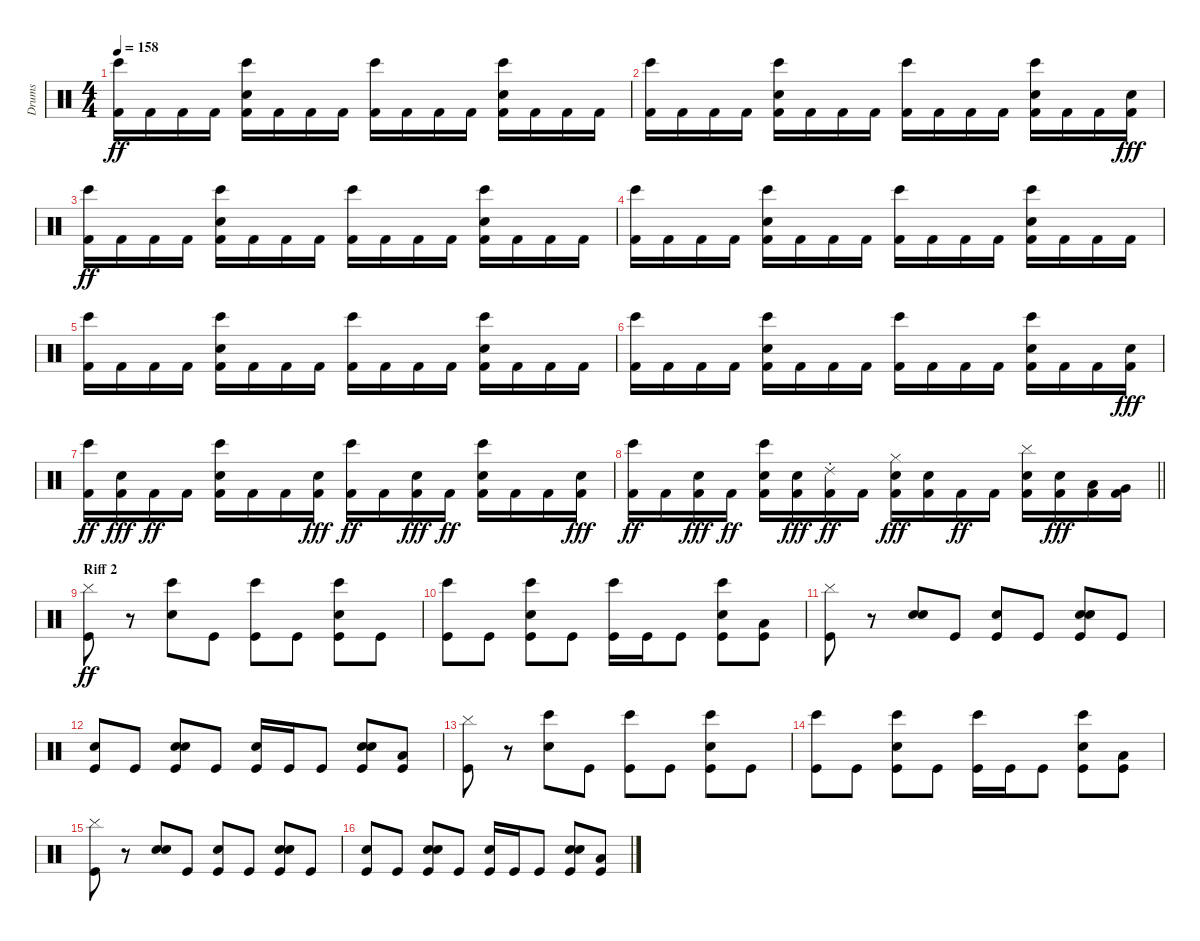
\track ("Drums" "Drums") {instrument percussion}
\staff {score}
\articulation defaults
\ts (4 4)
\tempo 158
\clef neutral
\ks c
("Bongo High (hit)" "Kick (hit) 2").16{dy ff} "Kick (hit) 2".16 "Kick (hit) 2".16 "Kick (hit) 2".16 ("Bongo High (hit)" "Kick (hit) 2" "Snare (hit) 2").16 "Kick (hit) 2".16 "Kick (hit) 2".16 "Kick (hit) 2".16 ("Bongo High (hit)" "Kick (hit) 2").16 "Kick (hit) 2".16 "Kick (hit) 2".16 "Kick (hit) 2".16 ("Bongo High (hit)" "Kick (hit) 2" "Snare (hit) 2").16 "Kick (hit) 2".16 "Kick (hit) 2".16 "Kick (hit) 2".16 |
("Bongo High (hit)" "Kick (hit) 2").16 "Kick (hit) 2".16 "Kick (hit) 2".16 "Kick (hit) 2".16 ("Bongo High (hit)" "Kick (hit) 2" "Snare (hit) 2").16 "Kick (hit) 2".16 "Kick (hit) 2".16 "Kick (hit) 2".16 ("Bongo High (hit)" "Kick (hit) 2").16 "Kick (hit) 2".16 "Kick (hit) 2".16 "Kick (hit) 2".16 ("Bongo High (hit)" "Kick (hit) 2" "Snare (hit) 2").16 "Kick (hit) 2".16 "Kick (hit) 2".16 ("Kick (hit) 2" "Snare (hit) 2").16{dy fff} |
("Bongo High (hit)" "Kick (hit) 2").16{dy ff} "Kick (hit) 2".16 "Kick (hit) 2".16 "Kick (hit) 2".16 ("Bongo High (hit)" "Kick (hit) 2" "Snare (hit) 2").16 "Kick (hit) 2".16 "Kick (hit) 2".16 "Kick (hit) 2".16 ("Bongo High (hit)" "Kick (hit) 2").16 "Kick (hit) 2".16 "Kick (hit) 2".16 "Kick (hit) 2".16 ("Bongo High (hit)" "Kick (hit) 2" "Snare (hit) 2").16 "Kick (hit) 2".16 "Kick (hit) 2".16 "Kick (hit) 2".16 |
("Bongo High (hit)" "Kick (hit) 2").16 "Kick (hit) 2".16 "Kick (hit) 2".16 "Kick (hit) 2".16 ("Bongo High (hit)" "Kick (hit) 2" "Snare (hit) 2").16 "Kick (hit) 2".16 "Kick (hit) 2".16 "Kick (hit) 2".16 ("Bongo High (hit)" "Kick (hit) 2").16 "Kick (hit) 2".16 "Kick (hit) 2".16 "Kick (hit) 2".16 ("Bongo High (hit)" "Kick (hit) 2" "Snare (hit) 2").16 "Kick (hit) 2".16 "Kick (hit) 2".16 "Kick (hit) 2".16 |
("Bongo High (hit)" "Kick (hit) 2").16 "Kick (hit) 2".16 "Kick (hit) 2".16 "Kick (hit) 2".16 ("Bongo High (hit)" "Kick (hit) 2" "Snare (hit) 2").16 "Kick (hit) 2".16 "Kick (hit) 2".16 "Kick (hit) 2".16 ("Bongo High (hit)" "Kick (hit) 2").16 "Kick (hit) 2".16 "Kick (hit) 2".16 "Kick (hit) 2".16 ("Bongo High (hit)" "Kick (hit) 2" "Snare (hit) 2").16 "Kick (hit) 2".16 "Kick (hit) 2".16 "Kick (hit) 2".16 |
("Bongo High (hit)" "Kick (hit) 2").16 "Kick (hit) 2".16 "Kick (hit) 2".16 "Kick (hit) 2".16 ("Bongo High (hit)" "Kick (hit) 2" "Snare (hit) 2").16 "Kick (hit) 2".16 "Kick (hit) 2".16 "Kick (hit) 2".16 ("Bongo High (hit)" "Kick (hit) 2").16 "Kick (hit) 2".16 "Kick (hit) 2".16 "Kick (hit) 2".16 ("Bongo High (hit)" "Kick (hit) 2" "Snare (hit) 2").16 "Kick (hit) 2".16 "Kick (hit) 2".16 ("Kick (hit) 2" "Snare (hit) 2").16{dy fff} |
("Bongo High (hit)" "Kick (hit) 2").16{dy ff} ("Kick (hit) 2" "Snare (hit) 2").16{dy fff} "Kick (hit) 2".16{dy ff} "Kick (hit) 2".16 ("Bongo High (hit)" "Kick (hit) 2" "Snare (hit) 2").16 "Kick (hit) 2".16 "Kick (hit) 2".16 ("Kick (hit) 2" "Snare (hit) 2").16{dy fff} ("Bongo High (hit)" "Kick (hit) 2").16{dy ff} "Kick (hit) 2".16 ("Kick (hit) 2" "Snare (hit) 2").16{dy fff} "Kick (hit) 2".16{dy ff} ("Bongo High (hit)" "Kick (hit) 2" "Snare (hit) 2").16 "Kick (hit) 2".16 "Kick (hit) 2".16 ("Kick (hit) 2" "Snare (hit) 2").16{dy fff} |
\barLineRight lightlight
("Bongo High (hit)" "Kick (hit) 2").16{dy ff} "Kick (hit) 2".16 ("Kick (hit) 2" "Snare (hit) 2").16{dy fff} "Kick (hit) 2".16{dy ff} ("Bongo High (hit)" "Kick (hit) 2" "Snare (hit) 2").16 ("Kick (hit) 2" "Snare (hit) 2").16{dy fff} ("Ride (choke) 2" "Kick (hit) 2").16{dy ff} "Kick (hit) 2".16 ("Hi-Hat (closed)" "Kick (hit) 2" "Snare (hit) 2").16{dy fff} ("Kick (hit) 2" "Snare (hit) 2").16 "Kick (hit) 2".16{dy ff} "Kick (hit) 2".16 ("Cymbal (hit)" "Kick (hit) 2" "Snare (hit) 2").16 ("Kick (hit) 2" "Snare (hit) 2").16{dy fff} ("Kick (hit) 2" "Low Tom (hit)").16 ("Kick (hit) 2" "Very Low Tom (hit)").16 |
\section ("" "Riff 2")
("Cymbal (hit)" "Kick (hit)").8{dy ff} r.8 ("Bongo High (hit)" "Snare (hit) 2").8 "Kick (hit)".8 ("Bongo High (hit)" "Kick (hit)").8 "Kick (hit)".8 ("Bongo High (hit)" "Kick (hit)" "Snare (hit) 2").8 "Kick (hit)".8 |
("Bongo High (hit)" "Kick (hit)").8 "Kick (hit)".8 ("Bongo High (hit)" "Kick (hit)" "Snare (hit) 2").8 "Kick (hit)".8 ("Bongo High (hit)" "Kick (hit)").16 "Kick (hit)".16 "Kick (hit)".8 ("Bongo High (hit)" "Kick (hit)" "Snare (hit) 2").8 ("Kick (hit)" "Low Tom (hit)").8 |
("Cymbal (hit)" "Kick (hit)").8 r.8 ("Snare (hit)" "Snare (hit) 2").8 "Kick (hit)".8 ("Snare (hit)" "Kick (hit)").8 "Kick (hit)".8 ("Snare (hit)" "Kick (hit)" "Snare (hit) 2").8 "Kick (hit)".8 |
("Snare (hit)" "Kick (hit)").8 "Kick (hit)".8 ("Snare (hit)" "Kick (hit)" "Snare (hit) 2").8 "Kick (hit)".8 ("Snare (hit)" "Kick (hit)").16 "Kick (hit)".16 "Kick (hit)".8 ("Snare (hit)" "Kick (hit)" "Snare (hit) 2").8 ("Kick (hit)" "Low Tom (hit)").8 |
("Cymbal (hit)" "Kick (hit)").8 r.8 ("Bongo High (hit)" "Snare (hit) 2").8 "Kick (hit)".8 ("Bongo High (hit)" "Kick (hit)").8 "Kick (hit)".8 ("Bongo High (hit)" "Kick (hit)" "Snare (hit) 2").8 "Kick (hit)".8 |
("Bongo High (hit)" "Kick (hit)").8 "Kick (hit)".8 ("Bongo High (hit)" "Kick (hit)" "Snare (hit) 2").8 "Kick (hit)".8 ("Bongo High (hit)" "Kick (hit)").16 "Kick (hit)".16 "Kick (hit)".8 ("Bongo High (hit)" "Kick (hit)" "Snare (hit) 2").8 ("Kick (hit)" "Low Tom (hit)").8 |
("Cymbal (hit)" "Kick (hit)").8 r.8 ("Snare (hit)" "Snare (hit) 2").8 "Kick (hit)".8 ("Snare (hit)" "Kick (hit)").8 "Kick (hit)".8 ("Snare (hit)" "Kick (hit)" "Snare (hit) 2").8 "Kick (hit)".8 |
("Snare (hit)" "Kick (hit)").8 "Kick (hit)".8 ("Snare (hit)" "Kick (hit)" "Snare (hit) 2").8 "Kick (hit)".8 ("Snare (hit)" "Kick (hit)").16 "Kick (hit)".16 "Kick (hit)".8 ("Snare (hit)" "Kick (hit)" "Snare (hit) 2").8 ("Kick (hit)" "Low Tom (hit)").8
